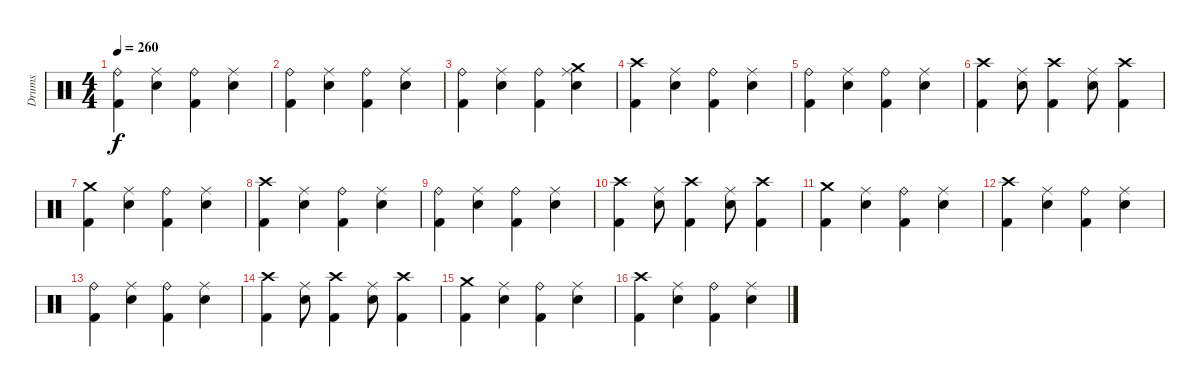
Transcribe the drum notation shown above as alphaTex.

\track ("Drums" "Drums") {instrument percussion}
\staff {score}
\articulation defaults
\ts (4 4)
\tempo 260
\clef neutral
\ks c
("Ride (bell)" "Kick (hit) 2").4{dy f} ("Ride (middle)" "Electric Snare (hit)").4 ("Ride (bell)" "Kick (hit) 2").4 ("Ride (middle)" "Electric Snare (hit)").4 |
("Ride (bell)" "Kick (hit) 2").4 ("Ride (middle)" "Electric Snare (hit)").4 ("Ride (bell)" "Kick (hit) 2").4 ("Ride (middle)" "Electric Snare (hit)").4 |
("Ride (bell)" "Kick (hit) 2").4 ("Ride (middle)" "Electric Snare (hit)").4 ("Ride (bell)" "Kick (hit) 2").4 ("Crash medium (hit)" "Ride (middle)" "Electric Snare (hit)").4 |
("Crash high (hit)" "Kick (hit) 2").4 ("Ride (middle)" "Electric Snare (hit)").4 ("Ride (bell)" "Kick (hit) 2").4 ("Ride (middle)" "Electric Snare (hit)").4 |
("Ride (bell)" "Kick (hit) 2").4 ("Ride (middle)" "Electric Snare (hit)").4 ("Ride (bell)" "Kick (hit) 2").4 ("Ride (middle)" "Electric Snare (hit)").4 |
("Crash high (hit)" "Kick (hit) 2").4 ("Ride (middle)" "Electric Snare (hit)").8 ("Crash high (hit)" "Kick (hit) 2").4 ("Ride (middle)" "Electric Snare (hit)").8 ("Crash high (hit)" "Kick (hit) 2").4 |
("Crash medium (hit)" "Kick (hit) 2").4 ("Ride (middle)" "Electric Snare (hit)").4 ("Ride (bell)" "Kick (hit) 2").4 ("Ride (middle)" "Electric Snare (hit)").4 |
("Crash high (hit)" "Kick (hit) 2").4 ("Ride (middle)" "Electric Snare (hit)").4 ("Ride (bell)" "Kick (hit) 2").4 ("Ride (middle)" "Electric Snare (hit)").4 |
("Ride (bell)" "Kick (hit) 2").4 ("Ride (middle)" "Electric Snare (hit)").4 ("Ride (bell)" "Kick (hit) 2").4 ("Ride (middle)" "Electric Snare (hit)").4 |
("Crash high (hit)" "Kick (hit) 2").4 ("Ride (middle)" "Electric Snare (hit)").8 ("Crash high (hit)" "Kick (hit) 2").4 ("Ride (middle)" "Electric Snare (hit)").8 ("Crash high (hit)" "Kick (hit) 2").4 |
("Crash medium (hit)" "Kick (hit) 2").4 ("Ride (middle)" "Electric Snare (hit)").4 ("Ride (bell)" "Kick (hit) 2").4 ("Ride (middle)" "Electric Snare (hit)").4 |
("Crash high (hit)" "Kick (hit) 2").4 ("Ride (middle)" "Electric Snare (hit)").4 ("Ride (bell)" "Kick (hit) 2").4 ("Ride (middle)" "Electric Snare (hit)").4 |
("Ride (bell)" "Kick (hit) 2").4 ("Ride (middle)" "Electric Snare (hit)").4 ("Ride (bell)" "Kick (hit) 2").4 ("Ride (middle)" "Electric Snare (hit)").4 |
("Crash high (hit)" "Kick (hit) 2").4 ("Ride (middle)" "Electric Snare (hit)").8 ("Crash high (hit)" "Kick (hit) 2").4 ("Ride (middle)" "Electric Snare (hit)").8 ("Crash high (hit)" "Kick (hit) 2").4 |
("Crash medium (hit)" "Kick (hit) 2").4 ("Ride (middle)" "Electric Snare (hit)").4 ("Ride (bell)" "Kick (hit) 2").4 ("Ride (middle)" "Electric Snare (hit)").4 |
("Crash high (hit)" "Kick (hit) 2").4 ("Ride (middle)" "Electric Snare (hit)").4 ("Ride (bell)" "Kick (hit) 2").4 ("Ride (middle)" "Electric Snare (hit)").4
